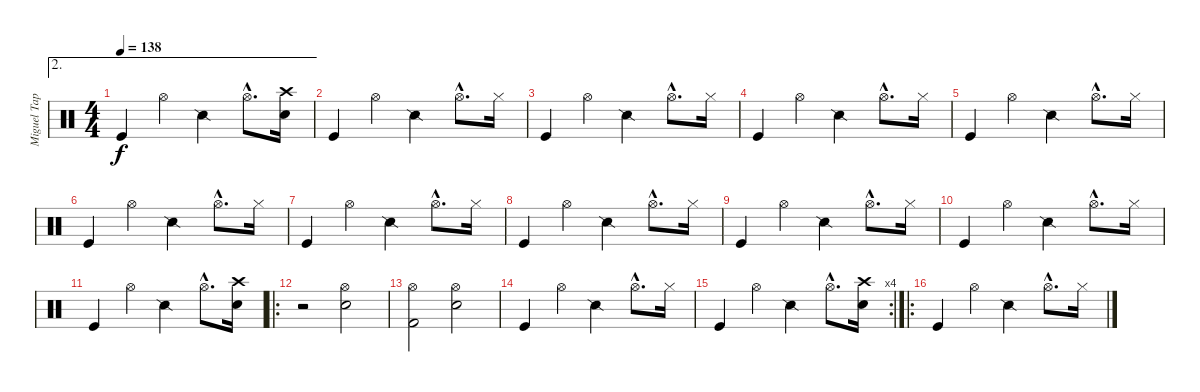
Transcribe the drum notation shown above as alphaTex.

\track ("Miguel Tapia (batería)" "Miguel Tap") {instrument percussion}
\staff {score}
\articulation defaults
\ae 2
\ts (4 4)
\tempo 138
\clef neutral
\ks c "Kick (hit)".4{dy f} "Hi-Hat (open)".4 "Snare (side stick) 2".4 "Hi-Hat (open)"{hac}.8{d}
("Crash high (hit)" "Snare (hit) 2").16 |
"Kick (hit)".4 "Hi-Hat (open)".4 "Snare (side stick) 2".4 "Hi-Hat (open)"{hac}.8{d} "Hi-Hat (closed)".16 |
"Kick (hit)".4 "Hi-Hat (open)".4 "Snare (side stick) 2".4 "Hi-Hat (open)"{hac}.8{d} "Hi-Hat (closed)".16 |
"Kick (hit)".4 "Hi-Hat (open)".4 "Snare (side stick) 2".4 "Hi-Hat (open)"{hac}.8{d} "Hi-Hat (closed)".16 |
"Kick (hit)".4 "Hi-Hat (open)".4 "Snare (side stick) 2".4 "Hi-Hat (open)"{hac}.8{d} "Hi-Hat (closed)".16 |
"Kick (hit)".4 "Hi-Hat (open)".4 "Snare (side stick) 2".4 "Hi-Hat (open)"{hac}.8{d} "Hi-Hat (closed)".16 |
"Kick (hit)".4 "Hi-Hat (open)".4 "Snare (side stick) 2".4 "Hi-Hat (open)"{hac}.8{d} "Hi-Hat (closed)".16 |
"Kick (hit)".4 "Hi-Hat (open)".4 "Snare (side stick) 2".4 "Hi-Hat (open)"{hac}.8{d} "Hi-Hat (closed)".16 |
"Kick (hit)".4 "Hi-Hat (open)".4 "Snare (side stick) 2".4 "Hi-Hat (open)"{hac}.8{d} "Hi-Hat (closed)".16 |
"Kick (hit)".4 "Hi-Hat (open)".4 "Snare (side stick) 2".4 "Hi-Hat (open)"{hac}.8{d} "Hi-Hat (closed)".16 |
"Kick (hit)".4 "Hi-Hat (open)".4 "Snare (side stick) 2".4 "Hi-Hat (open)"{hac}.8{d} ("Crash high (hit)" "Snare (hit) 2").16 |
\ro
r.2 ("Hi-Hat (open)" "Snare (hit) 2").2 |
("Hi-Hat (open)" "Kick (hit) 2").2 ("Hi-Hat (open)" "Electric Snare (hit)").2 |
"Kick (hit)".4 "Hi-Hat (open)".4 "Snare (side stick) 2".4 "Hi-Hat (open)"{hac}.8{d} "Hi-Hat (closed)".16 |
\rc 4 "Kick (hit)".4 "Hi-Hat (open)".4 "Snare (side stick) 2".4 "Hi-Hat (open)"{hac}.8{d}
("Crash high (hit)" "Snare (hit) 2").16 |
\ro "Kick (hit)".4 "Hi-Hat (open)".4 "Snare (side stick) 2".4 "Hi-Hat (open)"{hac}.8{d} "Hi-Hat (closed)".16
